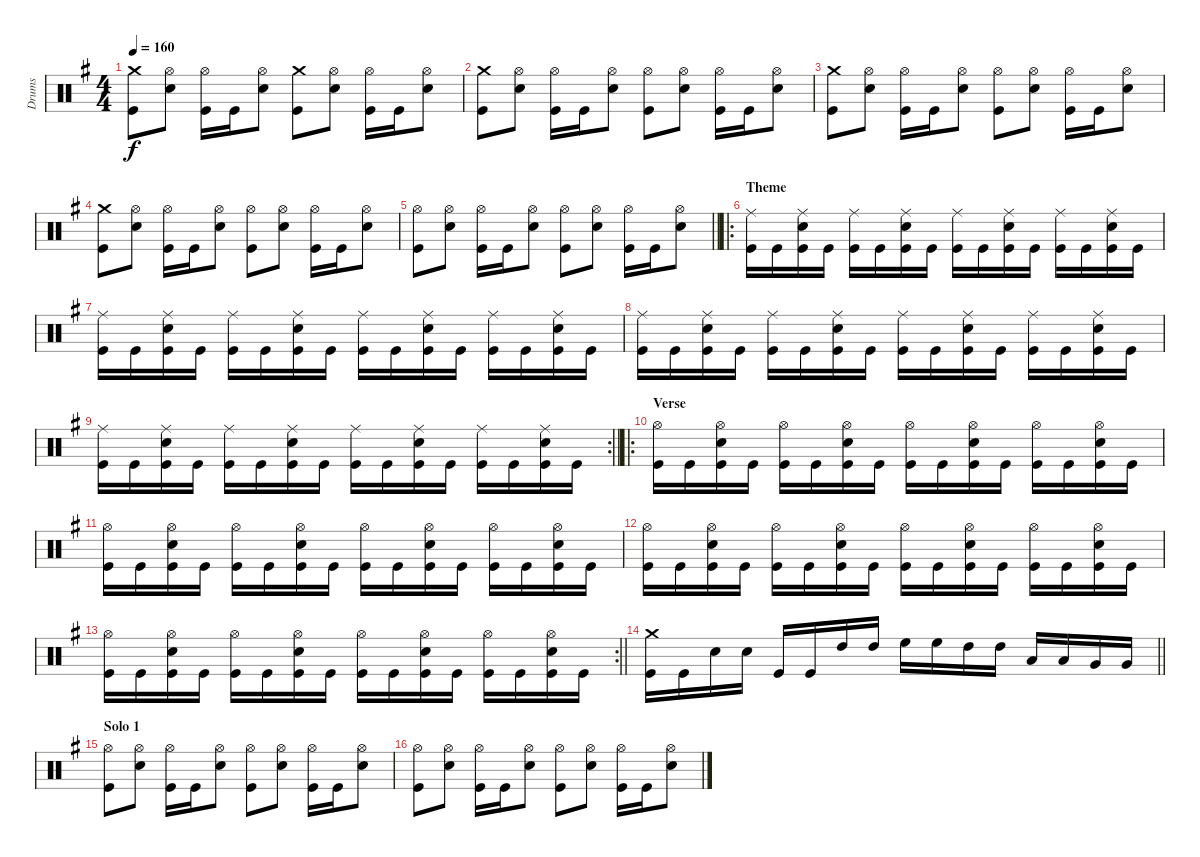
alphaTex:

\track ("Drums" "Drums") {instrument percussion}
\staff {score}
\articulation defaults
\ts (4 4)
\tempo 160
\clef neutral
\ks eminor
("Crash medium (hit)" "Kick (hit)").8{dy f} ("Hi-Hat (open)" "Snare (hit) 2").8 ("Hi-Hat (open)" "Kick (hit)").16 "Kick (hit)".16 ("Hi-Hat (open)" "Snare (hit) 2").8 ("Crash medium (hit)" "Kick (hit)").8 ("Hi-Hat (open)" "Snare (hit) 2").8 ("Hi-Hat (open)" "Kick (hit)").16 "Kick (hit)".16 ("Hi-Hat (open)" "Snare (hit) 2").8 |
("Crash medium (hit)" "Kick (hit)").8 ("Hi-Hat (open)" "Snare (hit) 2").8 ("Hi-Hat (open)" "Kick (hit)").16 "Kick (hit)".16 ("Hi-Hat (open)" "Snare (hit) 2").8 ("Hi-Hat (open)" "Kick (hit)").8 ("Hi-Hat (open)" "Snare (hit) 2").8 ("Hi-Hat (open)" "Kick (hit)").16 "Kick (hit)".16 ("Hi-Hat (open)" "Snare (hit) 2").8 |
("Crash medium (hit)" "Kick (hit)").8 ("Hi-Hat (open)" "Snare (hit) 2").8 ("Hi-Hat (open)" "Kick (hit)").16 "Kick (hit)".16 ("Hi-Hat (open)" "Snare (hit) 2").8 ("Hi-Hat (open)" "Kick (hit)").8 ("Hi-Hat (open)" "Snare (hit) 2").8 ("Hi-Hat (open)" "Kick (hit)").16 "Kick (hit)".16 ("Hi-Hat (open)" "Snare (hit) 2").8 |
("Crash medium (hit)" "Kick (hit)").8 ("Hi-Hat (open)" "Snare (hit) 2").8 ("Hi-Hat (open)" "Kick (hit)").16 "Kick (hit)".16 ("Hi-Hat (open)" "Snare (hit) 2").8 ("Hi-Hat (open)" "Kick (hit)").8 ("Hi-Hat (open)" "Snare (hit) 2").8 ("Hi-Hat (open)" "Kick (hit)").16 "Kick (hit)".16 ("Hi-Hat (open)" "Snare (hit) 2").8 |
\barLineRight lightlight
("Hi-Hat (open)" "Kick (hit)").8 ("Hi-Hat (open)" "Snare (hit) 2").8 ("Hi-Hat (open)" "Kick (hit)").16 "Kick (hit)".16 ("Hi-Hat (open)" "Snare (hit) 2").8 ("Hi-Hat (open)" "Kick (hit)").8 ("Hi-Hat (open)" "Snare (hit) 2").8 ("Hi-Hat (open)" "Kick (hit)").16 "Kick (hit)".16 ("Hi-Hat (open)" "Snare (hit) 2").8 |
\ro
\section ("" "Theme")
("Ride (middle)" "Kick (hit)").16 "Kick (hit)".16 ("Ride (middle)" "Snare (hit) 2" "Kick (hit)").16 "Kick (hit)".16 ("Ride (middle)" "Kick (hit)").16 "Kick (hit)".16 ("Ride (middle)" "Snare (hit) 2" "Kick (hit)").16 "Kick (hit)".16 ("Ride (middle)" "Kick (hit)").16 "Kick (hit)".16 ("Ride (middle)" "Snare (hit) 2" "Kick (hit)").16 "Kick (hit)".16 ("Ride (middle)" "Kick (hit)").16 "Kick (hit)".16 ("Ride (middle)" "Snare (hit) 2" "Kick (hit)").16 "Kick (hit)".16 |
("Ride (middle)" "Kick (hit)").16 "Kick (hit)".16 ("Ride (middle)" "Snare (hit) 2" "Kick (hit)").16 "Kick (hit)".16 ("Ride (middle)" "Kick (hit)").16 "Kick (hit)".16 ("Ride (middle)" "Snare (hit) 2" "Kick (hit)").16 "Kick (hit)".16 ("Ride (middle)" "Kick (hit)").16 "Kick (hit)".16 ("Ride (middle)" "Snare (hit) 2" "Kick (hit)").16 "Kick (hit)".16 ("Ride (middle)" "Kick (hit)").16 "Kick (hit)".16 ("Ride (middle)" "Snare (hit) 2" "Kick (hit)").16 "Kick (hit)".16 |
("Ride (middle)" "Kick (hit)").16 "Kick (hit)".16 ("Ride (middle)" "Snare (hit) 2" "Kick (hit)").16 "Kick (hit)".16 ("Ride (middle)" "Kick (hit)").16 "Kick (hit)".16 ("Ride (middle)" "Snare (hit) 2" "Kick (hit)").16 "Kick (hit)".16 ("Ride (middle)" "Kick (hit)").16 "Kick (hit)".16 ("Ride (middle)" "Snare (hit) 2" "Kick (hit)").16 "Kick (hit)".16 ("Ride (middle)" "Kick (hit)").16 "Kick (hit)".16 ("Ride (middle)" "Snare (hit) 2" "Kick (hit)").16 "Kick (hit)".16 |
\rc 2
\barLineRight lightlight
("Ride (middle)" "Kick (hit)").16 "Kick (hit)".16 ("Ride (middle)" "Snare (hit) 2" "Kick (hit)").16 "Kick (hit)".16 ("Ride (middle)" "Kick (hit)").16 "Kick (hit)".16 ("Ride (middle)" "Snare (hit) 2" "Kick (hit)").16 "Kick (hit)".16 ("Ride (middle)" "Kick (hit)").16 "Kick (hit)".16 ("Ride (middle)" "Snare (hit) 2" "Kick (hit)").16 "Kick (hit)".16 ("Ride (middle)" "Kick (hit)").16 "Kick (hit)".16 ("Ride (middle)" "Snare (hit) 2" "Kick (hit)").16 "Kick (hit)".16 |
\ro
\section ("" "Verse")
("Hi-Hat (open)" "Kick (hit)").16 "Kick (hit)".16 ("Hi-Hat (open)" "Snare (hit) 2" "Kick (hit)").16 "Kick (hit)".16 ("Hi-Hat (open)" "Kick (hit)").16 "Kick (hit)".16 ("Hi-Hat (open)" "Snare (hit) 2" "Kick (hit)").16 "Kick (hit)".16 ("Hi-Hat (open)" "Kick (hit)").16 "Kick (hit)".16 ("Hi-Hat (open)" "Snare (hit) 2" "Kick (hit)").16 "Kick (hit)".16 ("Hi-Hat (open)" "Kick (hit)").16 "Kick (hit)".16 ("Hi-Hat (open)" "Snare (hit) 2" "Kick (hit)").16 "Kick (hit)".16 |
("Hi-Hat (open)" "Kick (hit)").16 "Kick (hit)".16 ("Hi-Hat (open)" "Snare (hit) 2" "Kick (hit)").16 "Kick (hit)".16 ("Hi-Hat (open)" "Kick (hit)").16 "Kick (hit)".16 ("Hi-Hat (open)" "Snare (hit) 2" "Kick (hit)").16 "Kick (hit)".16 ("Hi-Hat (open)" "Kick (hit)").16 "Kick (hit)".16 ("Hi-Hat (open)" "Snare (hit) 2" "Kick (hit)").16 "Kick (hit)".16 ("Hi-Hat (open)" "Kick (hit)").16 "Kick (hit)".16 ("Hi-Hat (open)" "Snare (hit) 2" "Kick (hit)").16 "Kick (hit)".16 |
("Hi-Hat (open)" "Kick (hit)").16 "Kick (hit)".16 ("Hi-Hat (open)" "Snare (hit) 2" "Kick (hit)").16 "Kick (hit)".16 ("Hi-Hat (open)" "Kick (hit)").16 "Kick (hit)".16 ("Hi-Hat (open)" "Snare (hit) 2" "Kick (hit)").16 "Kick (hit)".16 ("Hi-Hat (open)" "Kick (hit)").16 "Kick (hit)".16 ("Hi-Hat (open)" "Snare (hit) 2" "Kick (hit)").16 "Kick (hit)".16 ("Hi-Hat (open)" "Kick (hit)").16 "Kick (hit)".16 ("Hi-Hat (open)" "Snare (hit) 2" "Kick (hit)").16 "Kick (hit)".16 |
\rc 2
\barLineRight lightlight
("Hi-Hat (open)" "Kick (hit)").16 "Kick (hit)".16 ("Hi-Hat (open)" "Snare (hit) 2" "Kick (hit)").16 "Kick (hit)".16 ("Hi-Hat (open)" "Kick (hit)").16 "Kick (hit)".16 ("Hi-Hat (open)" "Snare (hit) 2" "Kick (hit)").16 "Kick (hit)".16 ("Hi-Hat (open)" "Kick (hit)").16 "Kick (hit)".16 ("Hi-Hat (open)" "Snare (hit) 2" "Kick (hit)").16 "Kick (hit)".16 ("Hi-Hat (open)" "Kick (hit)").16 "Kick (hit)".16 ("Hi-Hat (open)" "Snare (hit) 2" "Kick (hit)").16 "Kick (hit)".16 |
\barLineRight lightlight
("Crash medium (hit)" "Kick (hit)").16 "Kick (hit)".16 "Snare (hit) 2".16 "Snare (hit) 2".16 "Kick (hit)".16 "Kick (hit)".16 "High Tom (hit)".16 "High Tom (hit)".16 "High Floor Tom (hit)".16 "High Floor Tom (hit)".16 "High Tom (hit)".16 "High Tom (hit)".16 "Low Tom (hit)".16 "Low Tom (hit)".16 "Very Low Tom (hit)".16 "Very Low Tom (hit)".16 |
\section ("" "Solo 1")
("Hi-Hat (open)" "Kick (hit)").8 ("Hi-Hat (open)" "Snare (hit) 2").8 ("Hi-Hat (open)" "Kick (hit)").16 "Kick (hit)".16 ("Hi-Hat (open)" "Snare (hit) 2").8 ("Hi-Hat (open)" "Kick (hit)").8 ("Hi-Hat (open)" "Snare (hit) 2").8 ("Hi-Hat (open)" "Kick (hit)").16 "Kick (hit)".16 ("Hi-Hat (open)" "Snare (hit) 2").8 |
("Hi-Hat (open)" "Kick (hit)").8 ("Hi-Hat (open)" "Snare (hit) 2").8 ("Hi-Hat (open)" "Kick (hit)").16 "Kick (hit)".16 ("Hi-Hat (open)" "Snare (hit) 2").8 ("Hi-Hat (open)" "Kick (hit)").8 ("Hi-Hat (open)" "Snare (hit) 2").8 ("Hi-Hat (open)" "Kick (hit)").16 "Kick (hit)".16 ("Hi-Hat (open)" "Snare (hit) 2").8
